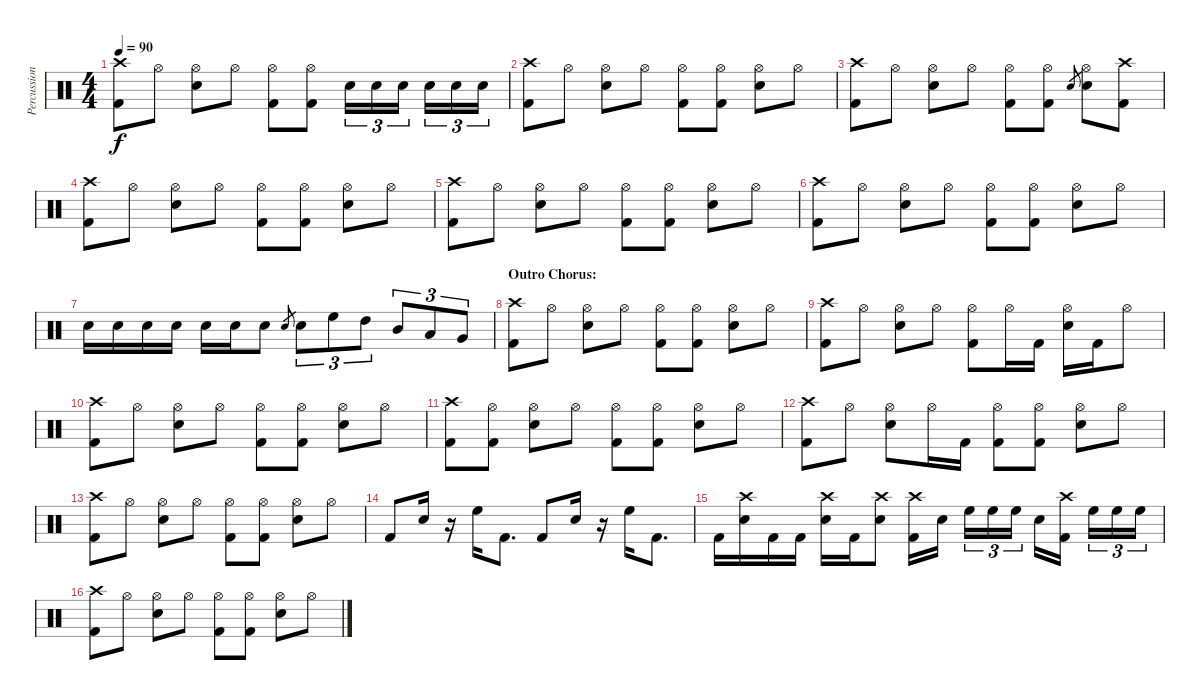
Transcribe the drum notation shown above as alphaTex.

\track ("Percussion" "Percussion") {instrument percussion}
\staff {score}
\articulation defaults
\ts (4 4)
\tempo 90
\clef neutral
\ks c
("Crash high (hit)" "Kick (hit) 2").8{dy f} "Hi-Hat (open)".8 ("Hi-Hat (open)" "Electric Snare (hit)").8 "Hi-Hat (open)".8 ("Hi-Hat (open)" "Kick (hit) 2").8 ("Hi-Hat (open)" "Kick (hit) 2").8 "Electric Snare (hit)".16{tu (3 2)} "Electric Snare (hit)".16{tu (3 2)} "Electric Snare (hit)".16{tu (3 2)} "Electric Snare (hit)".16{tu (3 2)} "Electric Snare (hit)".16{tu (3 2)} "Electric Snare (hit)".16{tu (3 2)} |
("Crash high (hit)" "Kick (hit) 2").8 "Hi-Hat (open)".8 ("Hi-Hat (open)" "Electric Snare (hit)").8 "Hi-Hat (open)".8 ("Hi-Hat (open)" "Kick (hit) 2").8 ("Hi-Hat (open)" "Kick (hit) 2").8 ("Hi-Hat (open)" "Electric Snare (hit)").8 "Hi-Hat (open)".8 |
("Crash high (hit)" "Kick (hit) 2").8 "Hi-Hat (open)".8 ("Hi-Hat (open)" "Electric Snare (hit)").8 "Hi-Hat (open)".8 ("Hi-Hat (open)" "Kick (hit) 2").8 ("Hi-Hat (open)" "Kick (hit) 2").8 "Electric Snare (hit)".8{gr} ("Hi-Hat (open)" "Electric Snare (hit)").8 ("Crash high (hit)" "Kick (hit) 2").8 |
("Crash high (hit)" "Kick (hit) 2").8 "Hi-Hat (open)".8 ("Hi-Hat (open)" "Electric Snare (hit)").8 "Hi-Hat (open)".8 ("Hi-Hat (open)" "Kick (hit) 2").8 ("Hi-Hat (open)" "Kick (hit) 2").8 ("Hi-Hat (open)" "Electric Snare (hit)").8 "Hi-Hat (open)".8 |
("Crash high (hit)" "Kick (hit) 2").8 "Hi-Hat (open)".8 ("Hi-Hat (open)" "Electric Snare (hit)").8 "Hi-Hat (open)".8 ("Hi-Hat (open)" "Kick (hit) 2").8 ("Hi-Hat (open)" "Kick (hit) 2").8 ("Hi-Hat (open)" "Electric Snare (hit)").8 "Hi-Hat (open)".8 |
("Crash high (hit)" "Kick (hit) 2").8 "Hi-Hat (open)".8 ("Hi-Hat (open)" "Electric Snare (hit)").8 "Hi-Hat (open)".8 ("Hi-Hat (open)" "Kick (hit) 2").8 ("Hi-Hat (open)" "Kick (hit) 2").8 ("Hi-Hat (open)" "Electric Snare (hit)").8 "Hi-Hat (open)".8 |
"Electric Snare (hit)".16 "Electric Snare (hit)".16 "Electric Snare (hit)".16 "Electric Snare (hit)".16 "Electric Snare (hit)".16 "Electric Snare (hit)".16 "Electric Snare (hit)".8 "Electric Snare (hit)".8{gr} "Electric Snare (hit)".8{tu (3 2)} "High Floor Tom (hit)".8{tu (3 2)} "High Tom (hit)".8{tu (3 2)} "Mid Tom (hit)".8{tu (3 2)} "Low Tom (hit)".8{tu (3 2)} "Very Low Tom (hit)".8{tu (3 2)} |
\section ("" "Outro Chorus:")
("Crash high (hit)" "Kick (hit) 2").8 "Hi-Hat (open)".8 ("Hi-Hat (open)" "Electric Snare (hit)").8 "Hi-Hat (open)".8 ("Hi-Hat (open)" "Kick (hit) 2").8 ("Hi-Hat (open)" "Kick (hit) 2").8 ("Hi-Hat (open)" "Electric Snare (hit)").8 "Hi-Hat (open)".8 |
("Crash high (hit)" "Kick (hit) 2").8 "Hi-Hat (open)".8 ("Hi-Hat (open)" "Electric Snare (hit)").8 "Hi-Hat (open)".8 ("Hi-Hat (open)" "Kick (hit) 2").8 "Hi-Hat (open)".16 "Kick (hit) 2".16 ("Hi-Hat (open)" "Electric Snare (hit)").16 "Kick (hit) 2".16 "Hi-Hat (open)".8 |
("Crash high (hit)" "Kick (hit) 2").8 "Hi-Hat (open)".8 ("Hi-Hat (open)" "Electric Snare (hit)").8 "Hi-Hat (open)".8 ("Hi-Hat (open)" "Kick (hit) 2").8 ("Hi-Hat (open)" "Kick (hit) 2").8 ("Hi-Hat (open)" "Electric Snare (hit)").8 "Hi-Hat (open)".8 |
("Crash high (hit)" "Kick (hit) 2").8 ("Hi-Hat (open)" "Kick (hit) 2").8 ("Hi-Hat (open)" "Electric Snare (hit)").8 "Hi-Hat (open)".8 ("Hi-Hat (open)" "Kick (hit) 2").8 ("Hi-Hat (open)" "Kick (hit) 2").8 ("Hi-Hat (open)" "Electric Snare (hit)").8 "Hi-Hat (open)".8 |
("Crash high (hit)" "Kick (hit) 2").8 "Hi-Hat (open)".8 ("Hi-Hat (open)" "Electric Snare (hit)").8 "Hi-Hat (open)".16 "Kick (hit) 2".16 ("Hi-Hat (open)" "Kick (hit) 2").8 ("Hi-Hat (open)" "Kick (hit) 2").8 ("Hi-Hat (open)" "Electric Snare (hit)").8 "Hi-Hat (open)".8 |
("Crash high (hit)" "Kick (hit) 2").8 "Hi-Hat (open)".8 ("Hi-Hat (open)" "Electric Snare (hit)").8 "Hi-Hat (open)".8 ("Hi-Hat (open)" "Kick (hit) 2").8 ("Hi-Hat (open)" "Kick (hit) 2").8 ("Hi-Hat (open)" "Electric Snare (hit)").8 "Hi-Hat (open)".8 |
"Kick (hit) 2".8 "Electric Snare (hit)".16 r.16 "High Floor Tom (hit)".16 "Kick (hit) 2".8{d} "Kick (hit) 2".8 "Electric Snare (hit)".16 r.16 "High Floor Tom (hit)".16 "Kick (hit) 2".8{d} |
"Kick (hit) 2".16 ("Crash high (hit)" "Electric Snare (hit)").16 "Kick (hit) 2".16 "Kick (hit) 2".16 ("Crash high (hit)" "Electric Snare (hit)").16 "Kick (hit) 2".16 ("Crash high (hit)" "Electric Snare (hit)").8 ("Crash high (hit)" "Kick (hit) 2").16 "Electric Snare (hit)".16 "High Floor Tom (hit)".16{tu (3 2)} "High Floor Tom (hit)".16{tu (3 2)} "High Floor Tom (hit)".16{tu (3 2)} "Electric Snare (hit)".16 ("Crash high (hit)" "Kick (hit) 2").16 "High Floor Tom (hit)".16{tu (3 2)} "High Floor Tom (hit)".16{tu (3 2)} "High Floor Tom (hit)".16{tu (3 2)} |
("Crash high (hit)" "Kick (hit) 2").8 "Hi-Hat (open)".8 ("Hi-Hat (open)" "Electric Snare (hit)").8 "Hi-Hat (open)".8 ("Hi-Hat (open)" "Kick (hit) 2").8 ("Hi-Hat (open)" "Kick (hit) 2").8 ("Hi-Hat (open)" "Electric Snare (hit)").8 "Hi-Hat (open)".8
